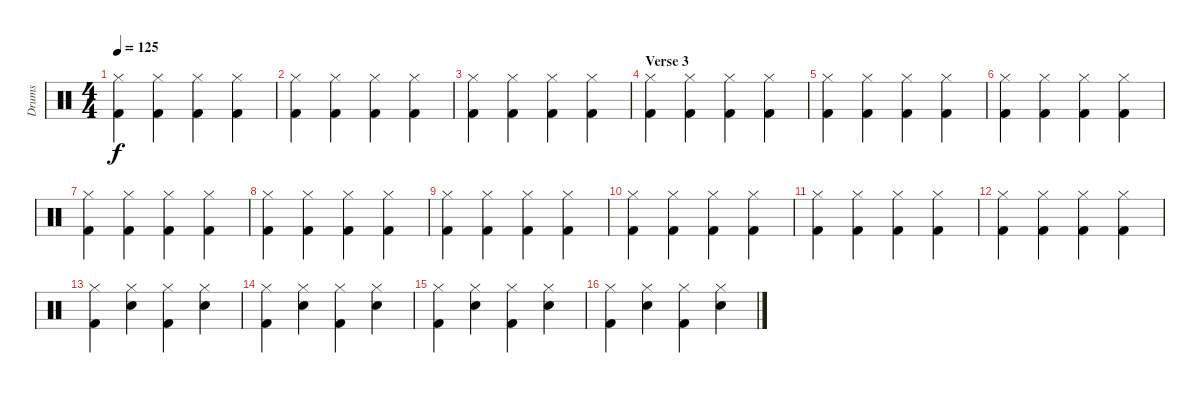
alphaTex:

\track ("Drums" "Drums") {instrument percussion}
\staff {score}
\articulation defaults
\ts (4 4)
\tempo 125
\clef neutral
\ks c
("Hi-Hat (closed)" "Kick (hit) 2").4{dy f} ("Hi-Hat (closed)" "Kick (hit) 2").4 ("Hi-Hat (closed)" "Kick (hit) 2").4 ("Hi-Hat (closed)" "Kick (hit) 2").4 |
("Hi-Hat (closed)" "Kick (hit) 2").4 ("Hi-Hat (closed)" "Kick (hit) 2").4 ("Hi-Hat (closed)" "Kick (hit) 2").4 ("Hi-Hat (closed)" "Kick (hit) 2").4 |
("Hi-Hat (closed)" "Kick (hit) 2").4 ("Hi-Hat (closed)" "Kick (hit) 2").4 ("Hi-Hat (closed)" "Kick (hit) 2").4 ("Hi-Hat (closed)" "Kick (hit) 2").4 |
\section ("" "Verse 3")
("Hi-Hat (closed)" "Kick (hit) 2").4 ("Hi-Hat (closed)" "Kick (hit) 2").4 ("Hi-Hat (closed)" "Kick (hit) 2").4 ("Hi-Hat (closed)" "Kick (hit) 2").4 |
("Hi-Hat (closed)" "Kick (hit) 2").4 ("Hi-Hat (closed)" "Kick (hit) 2").4 ("Hi-Hat (closed)" "Kick (hit) 2").4 ("Hi-Hat (closed)" "Kick (hit) 2").4 |
("Hi-Hat (closed)" "Kick (hit) 2").4 ("Hi-Hat (closed)" "Kick (hit) 2").4 ("Hi-Hat (closed)" "Kick (hit) 2").4 ("Hi-Hat (closed)" "Kick (hit) 2").4 |
("Hi-Hat (closed)" "Kick (hit) 2").4 ("Hi-Hat (closed)" "Kick (hit) 2").4 ("Hi-Hat (closed)" "Kick (hit) 2").4 ("Hi-Hat (closed)" "Kick (hit) 2").4 |
("Hi-Hat (closed)" "Kick (hit) 2").4 ("Hi-Hat (closed)" "Kick (hit) 2").4 ("Hi-Hat (closed)" "Kick (hit) 2").4 ("Hi-Hat (closed)" "Kick (hit) 2").4 |
("Hi-Hat (closed)" "Kick (hit) 2").4 ("Hi-Hat (closed)" "Kick (hit) 2").4 ("Hi-Hat (closed)" "Kick (hit) 2").4 ("Hi-Hat (closed)" "Kick (hit) 2").4 |
("Hi-Hat (closed)" "Kick (hit) 2").4 ("Hi-Hat (closed)" "Kick (hit) 2").4 ("Hi-Hat (closed)" "Kick (hit) 2").4 ("Hi-Hat (closed)" "Kick (hit) 2").4 |
("Hi-Hat (closed)" "Kick (hit) 2").4 ("Hi-Hat (closed)" "Kick (hit) 2").4 ("Hi-Hat (closed)" "Kick (hit) 2").4 ("Hi-Hat (closed)" "Kick (hit) 2").4 |
("Hi-Hat (closed)" "Kick (hit) 2").4 ("Hi-Hat (closed)" "Kick (hit) 2").4 ("Hi-Hat (closed)" "Kick (hit) 2").4 ("Hi-Hat (closed)" "Kick (hit) 2").4 |
("Hi-Hat (closed)" "Kick (hit) 2").4 ("Hi-Hat (closed)" "Electric Snare (hit)").4 ("Hi-Hat (closed)" "Kick (hit) 2").4 ("Hi-Hat (closed)" "Electric Snare (hit)").4 |
("Hi-Hat (closed)" "Kick (hit) 2").4 ("Hi-Hat (closed)" "Electric Snare (hit)").4 ("Hi-Hat (closed)" "Kick (hit) 2").4 ("Hi-Hat (closed)" "Electric Snare (hit)").4 |
("Hi-Hat (closed)" "Kick (hit) 2").4 ("Hi-Hat (closed)" "Electric Snare (hit)").4 ("Hi-Hat (closed)" "Kick (hit) 2").4 ("Hi-Hat (closed)" "Electric Snare (hit)").4 |
("Hi-Hat (closed)" "Kick (hit) 2").4 ("Hi-Hat (closed)" "Electric Snare (hit)").4 ("Hi-Hat (closed)" "Kick (hit) 2").4 ("Hi-Hat (closed)" "Electric Snare (hit)").4
